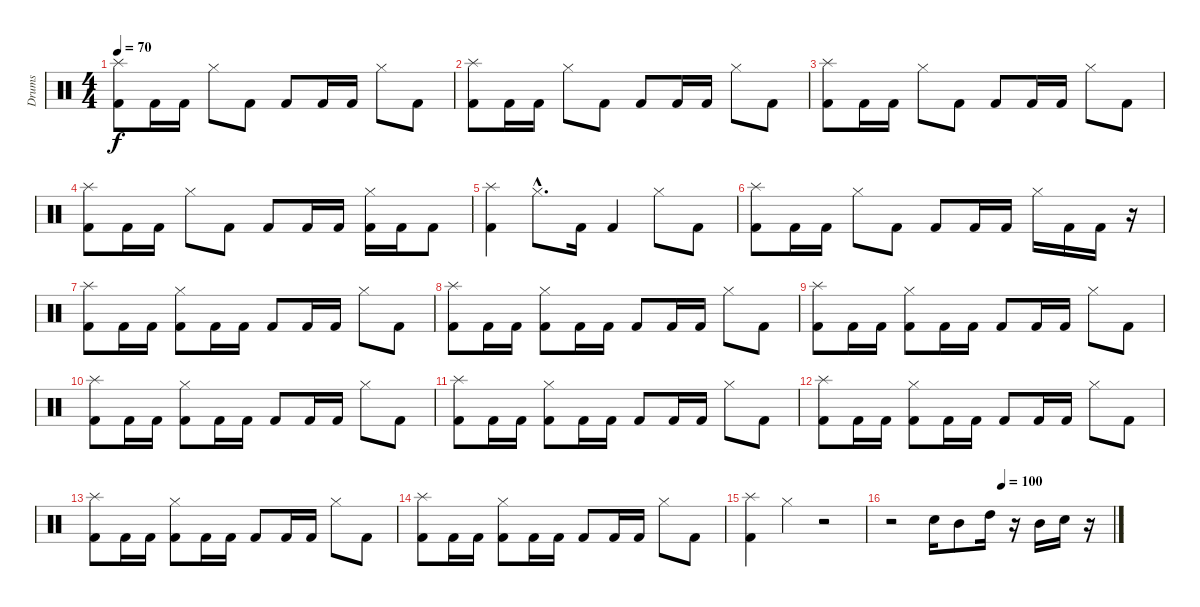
\track ("Drums" "Drums") {instrument percussion}
\staff {score}
\articulation defaults
\ts (4 4)
\tempo 70
\clef neutral
\ks c
("Splash (hit)" "Kick (hit) 2").8{dy f} "Kick (hit) 2".16 "Kick (hit) 2".16 "Hi-Hat (closed)".8 "Kick (hit) 2".8 "Kick (hit) 2".8 "Kick (hit) 2".16 "Kick (hit) 2".16 "Hi-Hat (closed)".8 "Kick (hit) 2".8 |
("Splash (hit)" "Kick (hit) 2").8 "Kick (hit) 2".16 "Kick (hit) 2".16 "Hi-Hat (closed)".8 "Kick (hit) 2".8 "Kick (hit) 2".8 "Kick (hit) 2".16 "Kick (hit) 2".16 "Hi-Hat (closed)".8 "Kick (hit) 2".8 |
("Splash (hit)" "Kick (hit) 2").8 "Kick (hit) 2".16 "Kick (hit) 2".16 "Hi-Hat (closed)".8 "Kick (hit) 2".8 "Kick (hit) 2".8 "Kick (hit) 2".16 "Kick (hit) 2".16 "Hi-Hat (closed)".8 "Kick (hit) 2".8 |
("Splash (hit)" "Kick (hit) 2").8 "Kick (hit) 2".16 "Kick (hit) 2".16 "Hi-Hat (closed)".8 "Kick (hit) 2".8 "Kick (hit) 2".8 "Kick (hit) 2".16 "Kick (hit) 2".16 ("Hi-Hat (closed)" "Kick (hit) 2").16 "Kick (hit) 2".16 "Kick (hit) 2".8 |
("Splash (hit)" "Kick (hit) 2").4 "Hi-Hat (closed)"{hac}.8{d} "Kick (hit) 2".16 "Kick (hit) 2".4 "Hi-Hat (closed)".8 "Kick (hit) 2".8 |
("Splash (hit)" "Kick (hit) 2").8 "Kick (hit) 2".16 "Kick (hit) 2".16 "Hi-Hat (closed)".8 "Kick (hit) 2".8 "Kick (hit) 2".8 "Kick (hit) 2".16 "Kick (hit) 2".16 "Hi-Hat (closed)".16 "Kick (hit) 2".16 "Kick (hit) 2".16 r.16 |
("Splash (hit)" "Kick (hit) 2").8 "Kick (hit) 2".16 "Kick (hit) 2".16 ("Hi-Hat (closed)" "Kick (hit) 2").8 "Kick (hit) 2".16 "Kick (hit) 2".16 "Kick (hit) 2".8 "Kick (hit) 2".16 "Kick (hit) 2".16 "Hi-Hat (closed)".8 "Kick (hit) 2".8 |
("Splash (hit)" "Kick (hit) 2").8 "Kick (hit) 2".16 "Kick (hit) 2".16 ("Hi-Hat (closed)" "Kick (hit) 2").8 "Kick (hit) 2".16 "Kick (hit) 2".16 "Kick (hit) 2".8 "Kick (hit) 2".16 "Kick (hit) 2".16 "Hi-Hat (closed)".8 "Kick (hit) 2".8 |
("Splash (hit)" "Kick (hit) 2").8 "Kick (hit) 2".16 "Kick (hit) 2".16 ("Hi-Hat (closed)" "Kick (hit) 2").8 "Kick (hit) 2".16 "Kick (hit) 2".16 "Kick (hit) 2".8 "Kick (hit) 2".16 "Kick (hit) 2".16 "Hi-Hat (closed)".8 "Kick (hit) 2".8 |
("Splash (hit)" "Kick (hit) 2").8 "Kick (hit) 2".16 "Kick (hit) 2".16 ("Hi-Hat (closed)" "Kick (hit) 2").8 "Kick (hit) 2".16 "Kick (hit) 2".16 "Kick (hit) 2".8 "Kick (hit) 2".16 "Kick (hit) 2".16 "Hi-Hat (closed)".8 "Kick (hit) 2".8 |
("Splash (hit)" "Kick (hit) 2").8 "Kick (hit) 2".16 "Kick (hit) 2".16 ("Hi-Hat (closed)" "Kick (hit) 2").8 "Kick (hit) 2".16 "Kick (hit) 2".16 "Kick (hit) 2".8 "Kick (hit) 2".16 "Kick (hit) 2".16 "Hi-Hat (closed)".8 "Kick (hit) 2".8 |
("Splash (hit)" "Kick (hit) 2").8 "Kick (hit) 2".16 "Kick (hit) 2".16 ("Hi-Hat (closed)" "Kick (hit) 2").8 "Kick (hit) 2".16 "Kick (hit) 2".16 "Kick (hit) 2".8 "Kick (hit) 2".16 "Kick (hit) 2".16 "Hi-Hat (closed)".8 "Kick (hit) 2".8 |
("Splash (hit)" "Kick (hit) 2").8 "Kick (hit) 2".16 "Kick (hit) 2".16 ("Hi-Hat (closed)" "Kick (hit) 2").8 "Kick (hit) 2".16 "Kick (hit) 2".16 "Kick (hit) 2".8 "Kick (hit) 2".16 "Kick (hit) 2".16 "Hi-Hat (closed)".8 "Kick (hit) 2".8 |
("Splash (hit)" "Kick (hit) 2").8 "Kick (hit) 2".16 "Kick (hit) 2".16 ("Hi-Hat (closed)" "Kick (hit) 2").8 "Kick (hit) 2".16 "Kick (hit) 2".16 "Kick (hit) 2".8 "Kick (hit) 2".16 "Kick (hit) 2".16 "Hi-Hat (closed)".8 "Kick (hit) 2".8 |
("Splash (hit)" "Kick (hit) 2").4 "Hi-Hat (closed)".4 r.2 |
\tempo (100 0.5)
r.2 "Snare (hit) 2".16 "Mid Tom (hit)".8 "High Tom (hit)".16 r.16 "Mid Tom (hit)".16 "Snare (hit) 2".16 r.16
